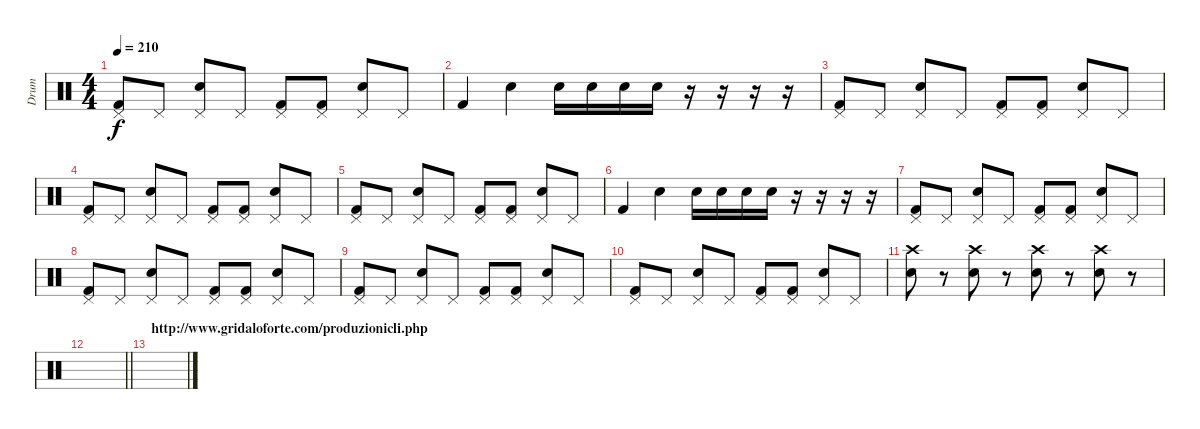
\track ("Drum" "Drum") {instrument percussion}
\staff {score}
\articulation defaults
\ts (4 4)
\tempo 210
\clef neutral
\ks c
("Pedal Hi-Hat (hit)" "Kick (hit) 2").8{dy f} "Pedal Hi-Hat (hit)".8 ("Pedal Hi-Hat (hit)" "Snare (hit) 2").8 "Pedal Hi-Hat (hit)".8 ("Pedal Hi-Hat (hit)" "Kick (hit) 2").8 ("Pedal Hi-Hat (hit)" "Kick (hit) 2").8 ("Pedal Hi-Hat (hit)" "Snare (hit) 2").8 "Pedal Hi-Hat (hit)".8 |
"Kick (hit) 2".4 "Snare (hit) 2".4 "Snare (hit) 2".16 "Snare (hit) 2".16 "Snare (hit) 2".16 "Snare (hit) 2".16 r.16 r.16 r.16 r.16 |
("Pedal Hi-Hat (hit)" "Kick (hit) 2").8 "Pedal Hi-Hat (hit)".8 ("Pedal Hi-Hat (hit)" "Snare (hit) 2").8 "Pedal Hi-Hat (hit)".8 ("Pedal Hi-Hat (hit)" "Kick (hit) 2").8 ("Pedal Hi-Hat (hit)" "Kick (hit) 2").8 ("Pedal Hi-Hat (hit)" "Snare (hit) 2").8 "Pedal Hi-Hat (hit)".8 |
("Pedal Hi-Hat (hit)" "Kick (hit) 2").8 "Pedal Hi-Hat (hit)".8 ("Pedal Hi-Hat (hit)" "Snare (hit) 2").8 "Pedal Hi-Hat (hit)".8 ("Pedal Hi-Hat (hit)" "Kick (hit) 2").8 ("Pedal Hi-Hat (hit)" "Kick (hit) 2").8 ("Pedal Hi-Hat (hit)" "Snare (hit) 2").8 "Pedal Hi-Hat (hit)".8 |
("Pedal Hi-Hat (hit)" "Kick (hit) 2").8 "Pedal Hi-Hat (hit)".8 ("Pedal Hi-Hat (hit)" "Snare (hit) 2").8 "Pedal Hi-Hat (hit)".8 ("Pedal Hi-Hat (hit)" "Kick (hit) 2").8 ("Pedal Hi-Hat (hit)" "Kick (hit) 2").8 ("Pedal Hi-Hat (hit)" "Snare (hit) 2").8 "Pedal Hi-Hat (hit)".8 |
"Kick (hit) 2".4 "Snare (hit) 2".4 "Snare (hit) 2".16 "Snare (hit) 2".16 "Snare (hit) 2".16 "Snare (hit) 2".16 r.16 r.16 r.16 r.16 |
("Pedal Hi-Hat (hit)" "Kick (hit) 2").8 "Pedal Hi-Hat (hit)".8 ("Pedal Hi-Hat (hit)" "Snare (hit) 2").8 "Pedal Hi-Hat (hit)".8 ("Pedal Hi-Hat (hit)" "Kick (hit) 2").8 ("Pedal Hi-Hat (hit)" "Kick (hit) 2").8 ("Pedal Hi-Hat (hit)" "Snare (hit) 2").8 "Pedal Hi-Hat (hit)".8 |
("Pedal Hi-Hat (hit)" "Kick (hit) 2").8 "Pedal Hi-Hat (hit)".8 ("Pedal Hi-Hat (hit)" "Snare (hit) 2").8 "Pedal Hi-Hat (hit)".8 ("Pedal Hi-Hat (hit)" "Kick (hit) 2").8 ("Pedal Hi-Hat (hit)" "Kick (hit) 2").8 ("Pedal Hi-Hat (hit)" "Snare (hit) 2").8 "Pedal Hi-Hat (hit)".8 |
("Pedal Hi-Hat (hit)" "Kick (hit) 2").8 "Pedal Hi-Hat (hit)".8 ("Pedal Hi-Hat (hit)" "Snare (hit) 2").8 "Pedal Hi-Hat (hit)".8 ("Pedal Hi-Hat (hit)" "Kick (hit) 2").8 ("Pedal Hi-Hat (hit)" "Kick (hit) 2").8 ("Pedal Hi-Hat (hit)" "Snare (hit) 2").8 "Pedal Hi-Hat (hit)".8 |
("Pedal Hi-Hat (hit)" "Kick (hit) 2").8 "Pedal Hi-Hat (hit)".8 ("Pedal Hi-Hat (hit)" "Snare (hit) 2").8 "Pedal Hi-Hat (hit)".8 ("Pedal Hi-Hat (hit)" "Kick (hit) 2").8 ("Pedal Hi-Hat (hit)" "Kick (hit) 2").8 ("Pedal Hi-Hat (hit)" "Snare (hit) 2").8 "Pedal Hi-Hat (hit)".8 |
("Crash high (hit)" "Snare (hit) 2").8 r.8 ("Crash high (hit)" "Snare (hit) 2").8 r.8 ("Crash high (hit)" "Snare (hit) 2").8 r.8 ("Crash high (hit)" "Snare (hit) 2").8 r.8 |
\barLineRight lightlight
|
\section ("" "http://www.gridaloforte.com/produzionicli.php")
